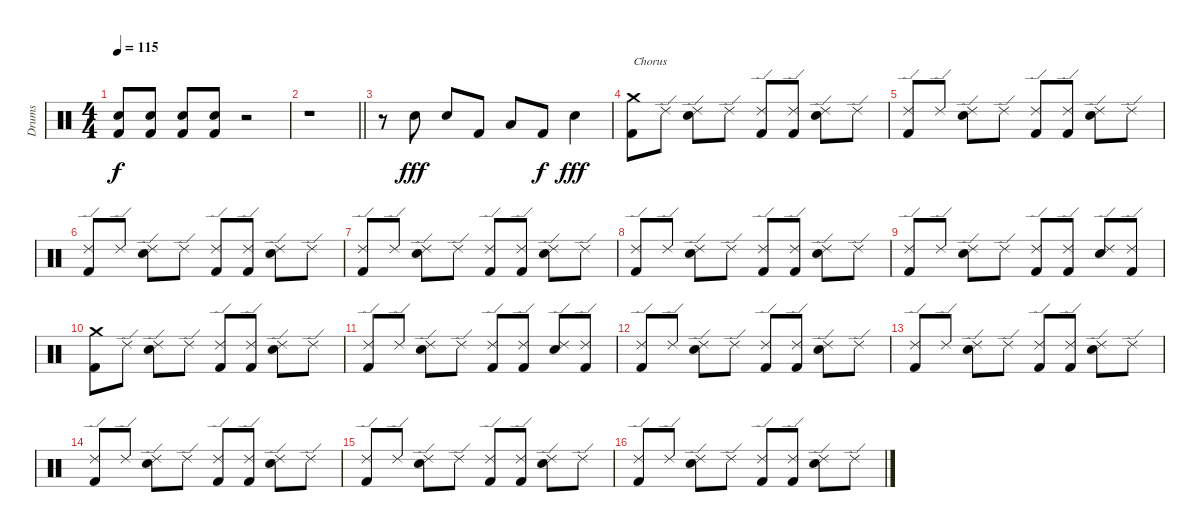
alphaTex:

\track ("Drums" "Drums") {instrument percussion}
\staff {score}
\articulation defaults
\ts (4 4)
\tempo 115
\clef neutral
\ks c
("Snare (hit) 2" "Kick (hit) 2").8{dy f} ("Snare (hit) 2" "Kick (hit) 2").8 ("Snare (hit) 2" "Kick (hit) 2").8 ("Snare (hit) 2" "Kick (hit) 2").8 r.2 |
\barLineRight lightlight
r.1 |
r.8 "Snare (hit) 2".8{dy fff} "Snare (hit) 2".8 "Kick (hit) 2".8 "Low Tom (hit)".8 "Kick (hit) 2".8{dy f} "Snare (hit) 2".4{dy fff} |
("Crash medium (hit)" "Kick (hit) 2").8{txt "Chorus"} "Ride (edge) 2".8 ("Ride (edge) 2" "Snare (hit) 2").8 "Ride (edge) 2".8 ("Ride (edge) 2" "Kick (hit) 2").8 ("Ride (edge) 2" "Kick (hit) 2").8 ("Ride (edge) 2" "Snare (hit) 2").8 "Ride (edge) 2".8 |
("Ride (edge) 2" "Kick (hit) 2").8 "Ride (edge) 2".8 ("Ride (edge) 2" "Snare (hit) 2").8 "Ride (edge) 2".8 ("Ride (edge) 2" "Kick (hit) 2").8 ("Ride (edge) 2" "Kick (hit) 2").8 ("Ride (edge) 2" "Snare (hit) 2").8 "Ride (edge) 2".8 |
("Ride (edge) 2" "Kick (hit) 2").8 "Ride (edge) 2".8 ("Ride (edge) 2" "Snare (hit) 2").8 "Ride (edge) 2".8 ("Ride (edge) 2" "Kick (hit) 2").8 ("Ride (edge) 2" "Kick (hit) 2").8 ("Ride (edge) 2" "Snare (hit) 2").8 "Ride (edge) 2".8 |
("Ride (edge) 2" "Kick (hit) 2").8 "Ride (edge) 2".8 ("Ride (edge) 2" "Snare (hit) 2").8 "Ride (edge) 2".8 ("Ride (edge) 2" "Kick (hit) 2").8 ("Ride (edge) 2" "Kick (hit) 2").8 ("Ride (edge) 2" "Snare (hit) 2").8 "Ride (edge) 2".8 |
("Ride (edge) 2" "Kick (hit) 2").8 "Ride (edge) 2".8 ("Ride (edge) 2" "Snare (hit) 2").8 "Ride (edge) 2".8 ("Ride (edge) 2" "Kick (hit) 2").8 ("Ride (edge) 2" "Kick (hit) 2").8 ("Ride (edge) 2" "Snare (hit) 2").8 "Ride (edge) 2".8 |
("Ride (edge) 2" "Kick (hit) 2").8 "Ride (edge) 2".8 ("Ride (edge) 2" "Snare (hit) 2").8 "Ride (edge) 2".8 ("Ride (edge) 2" "Kick (hit) 2").8 ("Ride (edge) 2" "Kick (hit) 2").8 ("Ride (edge) 2" "Snare (hit) 2").8 ("Ride (edge) 2" "Kick (hit) 2").8 |
("Crash medium (hit)" "Kick (hit) 2").8 "Ride (edge) 2".8 ("Ride (edge) 2" "Snare (hit) 2").8 "Ride (edge) 2".8 ("Ride (edge) 2" "Kick (hit) 2").8 ("Ride (edge) 2" "Kick (hit) 2").8 ("Ride (edge) 2" "Snare (hit) 2").8 "Ride (edge) 2".8 |
("Ride (edge) 2" "Kick (hit) 2").8 "Ride (edge) 2".8 ("Ride (edge) 2" "Snare (hit) 2").8 "Ride (edge) 2".8 ("Ride (edge) 2" "Kick (hit) 2").8 ("Ride (edge) 2" "Kick (hit) 2").8 ("Ride (edge) 2" "Snare (hit) 2").8 ("Ride (edge) 2" "Kick (hit) 2").8 |
("Ride (edge) 2" "Kick (hit) 2").8 "Ride (edge) 2".8 ("Ride (edge) 2" "Snare (hit) 2").8 "Ride (edge) 2".8 ("Ride (edge) 2" "Kick (hit) 2").8 ("Ride (edge) 2" "Kick (hit) 2").8 ("Ride (edge) 2" "Snare (hit) 2").8 "Ride (edge) 2".8 |
("Ride (edge) 2" "Kick (hit) 2").8 "Ride (edge) 2".8 ("Ride (edge) 2" "Snare (hit) 2").8 "Ride (edge) 2".8 ("Ride (edge) 2" "Kick (hit) 2").8 ("Ride (edge) 2" "Kick (hit) 2").8 ("Ride (edge) 2" "Snare (hit) 2").8 "Ride (edge) 2".8 |
("Ride (edge) 2" "Kick (hit) 2").8 "Ride (edge) 2".8 ("Ride (edge) 2" "Snare (hit) 2").8 "Ride (edge) 2".8 ("Ride (edge) 2" "Kick (hit) 2").8 ("Ride (edge) 2" "Kick (hit) 2").8 ("Ride (edge) 2" "Snare (hit) 2").8 "Ride (edge) 2".8 |
("Ride (edge) 2" "Kick (hit) 2").8 "Ride (edge) 2".8 ("Ride (edge) 2" "Snare (hit) 2").8 "Ride (edge) 2".8 ("Ride (edge) 2" "Kick (hit) 2").8 ("Ride (edge) 2" "Kick (hit) 2").8 ("Ride (edge) 2" "Snare (hit) 2").8 "Ride (edge) 2".8 |
("Ride (edge) 2" "Kick (hit) 2").8 "Ride (edge) 2".8 ("Ride (edge) 2" "Snare (hit) 2").8 "Ride (edge) 2".8 ("Ride (edge) 2" "Kick (hit) 2").8 ("Ride (edge) 2" "Kick (hit) 2").8 ("Ride (edge) 2" "Snare (hit) 2").8 "Ride (edge) 2".8
